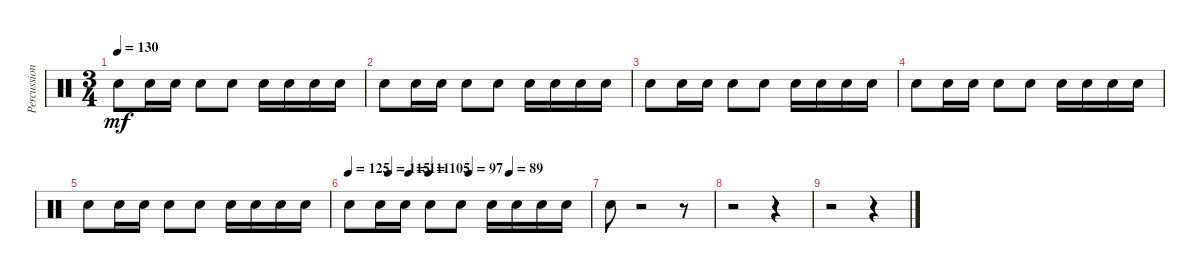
\track ("Percussion" "Percussion") {instrument percussion}
\staff {score}
\articulation defaults
\ts (3 4)
\tempo 130
\clef neutral
\ks c "Electric Snare (hit)".8{dy mf} "Electric Snare (hit)".16 "Electric Snare (hit)".16 "Electric Snare (hit)".8 "Electric Snare (hit)".8 "Electric Snare (hit)".16 "Electric Snare (hit)".16 "Electric Snare (hit)".16 "Electric Snare (hit)".16
|
"Electric Snare (hit)".8 "Electric Snare (hit)".16 "Electric Snare (hit)".16 "Electric Snare (hit)".8 "Electric Snare (hit)".8 "Electric Snare (hit)".16 "Electric Snare (hit)".16 "Electric Snare (hit)".16 "Electric Snare (hit)".16 |
"Electric Snare (hit)".8 "Electric Snare (hit)".16 "Electric Snare (hit)".16 "Electric Snare (hit)".8 "Electric Snare (hit)".8 "Electric Snare (hit)".16 "Electric Snare (hit)".16 "Electric Snare (hit)".16 "Electric Snare (hit)".16 |
"Electric Snare (hit)".8 "Electric Snare (hit)".16 "Electric Snare (hit)".16 "Electric Snare (hit)".8 "Electric Snare (hit)".8 "Electric Snare (hit)".16 "Electric Snare (hit)".16 "Electric Snare (hit)".16 "Electric Snare (hit)".16 |
"Electric Snare (hit)".8 "Electric Snare (hit)".16 "Electric Snare (hit)".16 "Electric Snare (hit)".8 "Electric Snare (hit)".8 "Electric Snare (hit)".16 "Electric Snare (hit)".16 "Electric Snare (hit)".16 "Electric Snare (hit)".16 |
\tempo 125
\tempo (115 0.16666666666666666)
\tempo (111 0.25)
\tempo (105 0.3333333333333333)
\tempo (97 0.5)
\tempo (89 0.6666666666666666)
"Electric Snare (hit)".8 "Electric Snare (hit)".16 "Electric Snare (hit)".16 "Electric Snare (hit)".8 "Electric Snare (hit)".8 "Electric Snare (hit)".16 "Electric Snare (hit)".16 "Electric Snare (hit)".16 "Electric Snare (hit)".16 |
"Electric Snare (hit)".8 r.2 r.8 |
r.2 r.4 |
r.2 r.4
